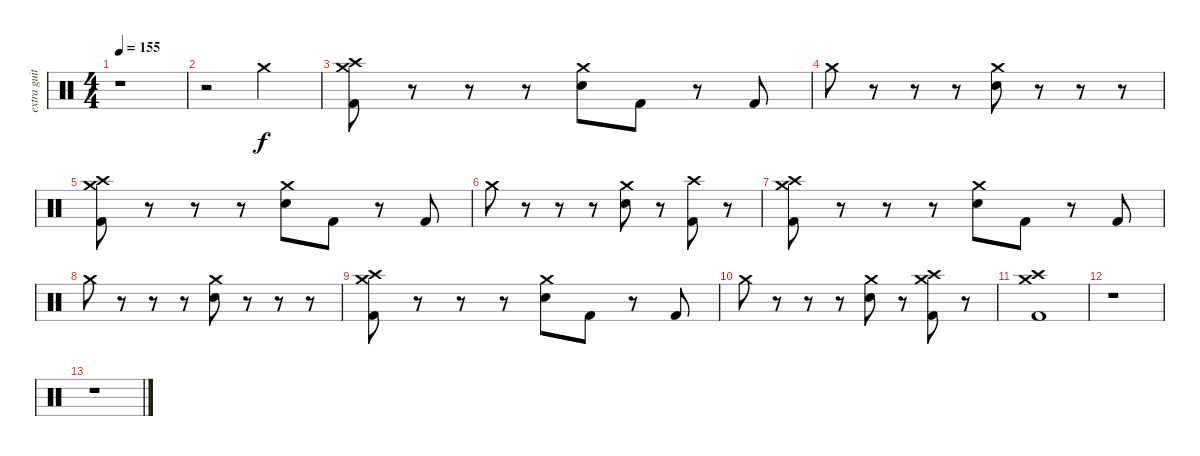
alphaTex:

\track ("extra guitar" "extra guit") {instrument percussion}
\staff {score}
\articulation defaults
\ts (4 4)
\tempo 155
\clef neutral
\ks c
r.1{dy f} |
r.2 "Crash medium (hit)".2 |
("Crash medium (hit)" "Crash high (hit)" "Kick (hit) 2").8 r.8 r.8 r.8 ("Crash medium (hit)" "Electric Snare (hit)").8 "Kick (hit) 2".8 r.8 "Kick (hit) 2".8 |
"Crash medium (hit)".8 r.8 r.8 r.8 ("Crash medium (hit)" "Electric Snare (hit)").8 r.8 r.8 r.8 |
("Crash medium (hit)" "Crash high (hit)" "Kick (hit) 2").8 r.8 r.8 r.8 ("Crash medium (hit)" "Electric Snare (hit)").8 "Kick (hit) 2".8 r.8 "Kick (hit) 2".8 |
"Crash medium (hit)".8 r.8 r.8 r.8 ("Crash medium (hit)" "Electric Snare (hit)").8 r.8 ("Crash high (hit)" "Kick (hit) 2").8 r.8 |
("Crash medium (hit)" "Crash high (hit)" "Kick (hit) 2").8 r.8 r.8 r.8 ("Crash medium (hit)" "Electric Snare (hit)").8 "Kick (hit) 2".8 r.8 "Kick (hit) 2".8 |
"Crash medium (hit)".8 r.8 r.8 r.8 ("Crash medium (hit)" "Electric Snare (hit)").8 r.8 r.8 r.8 |
("Crash medium (hit)" "Crash high (hit)" "Kick (hit) 2").8 r.8 r.8 r.8 ("Crash medium (hit)" "Electric Snare (hit)").8 "Kick (hit) 2".8 r.8 "Kick (hit) 2".8 |
"Crash medium (hit)".8 r.8 r.8 r.8 ("Crash medium (hit)" "Electric Snare (hit)").8 r.8 ("Crash medium (hit)" "Crash high (hit)" "Kick (hit) 2").8 r.8 |
("Crash medium (hit)" "Crash high (hit)" "Kick (hit) 2").1 |
r.1 |
r.1
